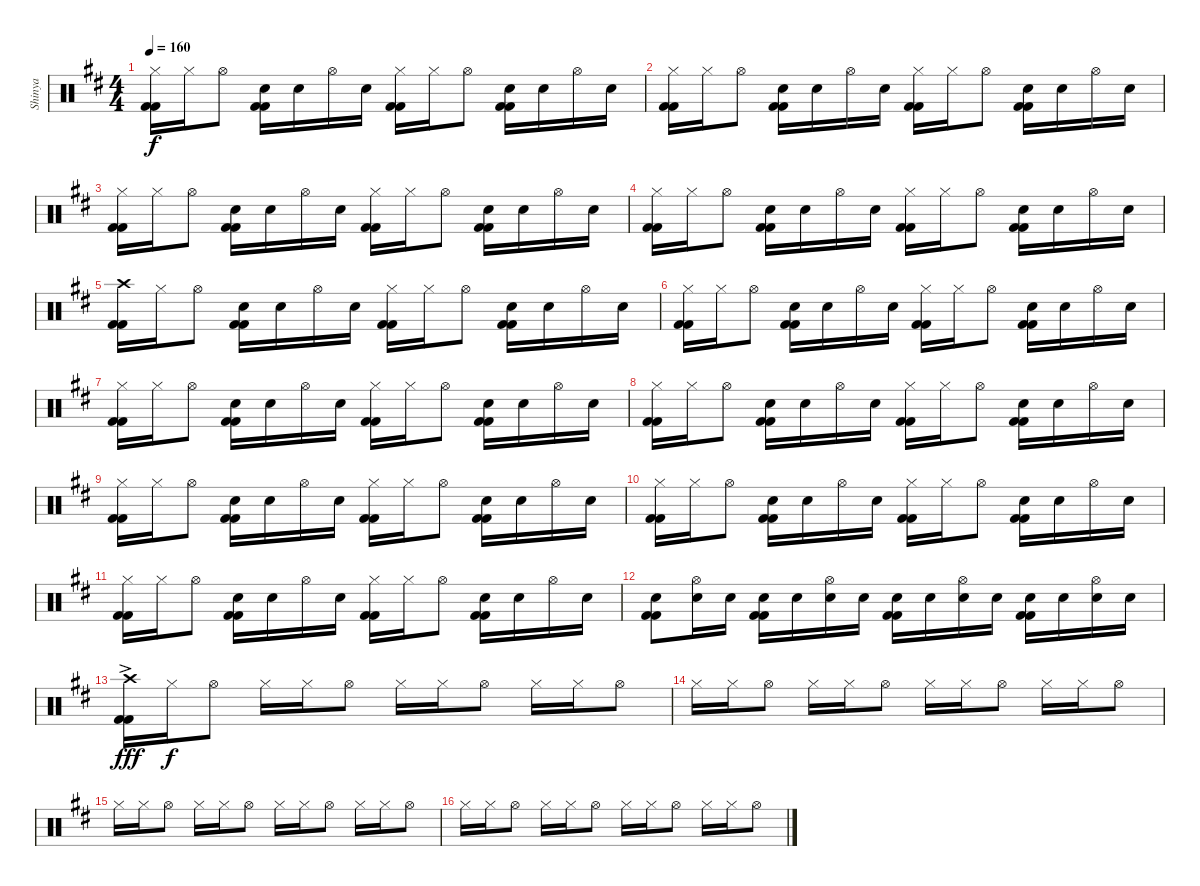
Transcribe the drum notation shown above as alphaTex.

\track ("Shinya " "Shinya ") {instrument percussion}
\staff {score}
\articulation defaults
\ts (4 4)
\tempo 160
\clef neutral
\ks d
("Hi-Hat (closed)" "Kick (hit) 2" "Kick (hit) 2").16{dy f} "Hi-Hat (closed)".16 "Hi-Hat (open)".8 ("Snare (hit) 2" "Kick (hit) 2" "Kick (hit) 2").16 "Snare (hit) 2".16 "Hi-Hat (open)".16 "Snare (hit) 2".16 ("Hi-Hat (closed)" "Kick (hit) 2" "Kick (hit) 2").16 "Hi-Hat (closed)".16 "Hi-Hat (open)".8 ("Snare (hit) 2" "Kick (hit) 2" "Kick (hit) 2").16 "Snare (hit) 2".16 "Hi-Hat (open)".16 "Snare (hit) 2".16 |
("Hi-Hat (closed)" "Kick (hit) 2" "Kick (hit) 2").16 "Hi-Hat (closed)".16 "Hi-Hat (open)".8 ("Snare (hit) 2" "Kick (hit) 2" "Kick (hit) 2").16 "Snare (hit) 2".16 "Hi-Hat (open)".16 "Snare (hit) 2".16 ("Hi-Hat (closed)" "Kick (hit) 2" "Kick (hit) 2").16 "Hi-Hat (closed)".16 "Hi-Hat (open)".8 ("Snare (hit) 2" "Kick (hit) 2" "Kick (hit) 2").16 "Snare (hit) 2".16 "Hi-Hat (open)".16 "Snare (hit) 2".16 |
("Hi-Hat (closed)" "Kick (hit) 2" "Kick (hit) 2").16 "Hi-Hat (closed)".16 "Hi-Hat (open)".8 ("Snare (hit) 2" "Kick (hit) 2" "Kick (hit) 2").16 "Snare (hit) 2".16 "Hi-Hat (open)".16 "Snare (hit) 2".16 ("Hi-Hat (closed)" "Kick (hit) 2" "Kick (hit) 2").16 "Hi-Hat (closed)".16 "Hi-Hat (open)".8 ("Snare (hit) 2" "Kick (hit) 2" "Kick (hit) 2").16 "Snare (hit) 2".16 "Hi-Hat (open)".16 "Snare (hit) 2".16 |
("Hi-Hat (closed)" "Kick (hit) 2" "Kick (hit) 2").16 "Hi-Hat (closed)".16 "Hi-Hat (open)".8 ("Snare (hit) 2" "Kick (hit) 2" "Kick (hit) 2").16 "Snare (hit) 2".16 "Hi-Hat (open)".16 "Snare (hit) 2".16 ("Hi-Hat (closed)" "Kick (hit) 2" "Kick (hit) 2").16 "Hi-Hat (closed)".16 "Hi-Hat (open)".8 ("Snare (hit) 2" "Kick (hit) 2" "Kick (hit) 2").16 "Snare (hit) 2".16 "Hi-Hat (open)".16 "Snare (hit) 2".16 |
("Crash high (hit)" "Kick (hit) 2" "Kick (hit) 2").16 "Hi-Hat (closed)".16 "Hi-Hat (open)".8 ("Snare (hit) 2" "Kick (hit) 2" "Kick (hit) 2").16 "Snare (hit) 2".16 "Hi-Hat (open)".16 "Snare (hit) 2".16 ("Hi-Hat (closed)" "Kick (hit) 2" "Kick (hit) 2").16 "Hi-Hat (closed)".16 "Hi-Hat (open)".8 ("Snare (hit) 2" "Kick (hit) 2" "Kick (hit) 2").16 "Snare (hit) 2".16 "Hi-Hat (open)".16 "Snare (hit) 2".16 |
("Hi-Hat (closed)" "Kick (hit) 2" "Kick (hit) 2").16 "Hi-Hat (closed)".16 "Hi-Hat (open)".8 ("Snare (hit) 2" "Kick (hit) 2" "Kick (hit) 2").16 "Snare (hit) 2".16 "Hi-Hat (open)".16 "Snare (hit) 2".16 ("Hi-Hat (closed)" "Kick (hit) 2" "Kick (hit) 2").16 "Hi-Hat (closed)".16 "Hi-Hat (open)".8 ("Snare (hit) 2" "Kick (hit) 2" "Kick (hit) 2").16 "Snare (hit) 2".16 "Hi-Hat (open)".16 "Snare (hit) 2".16 |
("Hi-Hat (closed)" "Kick (hit) 2" "Kick (hit) 2").16 "Hi-Hat (closed)".16 "Hi-Hat (open)".8 ("Snare (hit) 2" "Kick (hit) 2" "Kick (hit) 2").16 "Snare (hit) 2".16 "Hi-Hat (open)".16 "Snare (hit) 2".16 ("Hi-Hat (closed)" "Kick (hit) 2" "Kick (hit) 2").16 "Hi-Hat (closed)".16 "Hi-Hat (open)".8 ("Snare (hit) 2" "Kick (hit) 2" "Kick (hit) 2").16 "Snare (hit) 2".16 "Hi-Hat (open)".16 "Snare (hit) 2".16 |
("Hi-Hat (closed)" "Kick (hit) 2" "Kick (hit) 2").16 "Hi-Hat (closed)".16 "Hi-Hat (open)".8 ("Snare (hit) 2" "Kick (hit) 2" "Kick (hit) 2").16 "Snare (hit) 2".16 "Hi-Hat (open)".16 "Snare (hit) 2".16 ("Hi-Hat (closed)" "Kick (hit) 2" "Kick (hit) 2").16 "Hi-Hat (closed)".16 "Hi-Hat (open)".8 ("Snare (hit) 2" "Kick (hit) 2" "Kick (hit) 2").16 "Snare (hit) 2".16 "Hi-Hat (open)".16 "Snare (hit) 2".16 |
("Hi-Hat (closed)" "Kick (hit) 2" "Kick (hit) 2").16 "Hi-Hat (closed)".16 "Hi-Hat (open)".8 ("Snare (hit) 2" "Kick (hit) 2" "Kick (hit) 2").16 "Snare (hit) 2".16 "Hi-Hat (open)".16 "Snare (hit) 2".16 ("Hi-Hat (closed)" "Kick (hit) 2" "Kick (hit) 2").16 "Hi-Hat (closed)".16 "Hi-Hat (open)".8 ("Snare (hit) 2" "Kick (hit) 2" "Kick (hit) 2").16 "Snare (hit) 2".16 "Hi-Hat (open)".16 "Snare (hit) 2".16 |
("Hi-Hat (closed)" "Kick (hit) 2" "Kick (hit) 2").16 "Hi-Hat (closed)".16 "Hi-Hat (open)".8 ("Snare (hit) 2" "Kick (hit) 2" "Kick (hit) 2").16 "Snare (hit) 2".16 "Hi-Hat (open)".16 "Snare (hit) 2".16 ("Hi-Hat (closed)" "Kick (hit) 2" "Kick (hit) 2").16 "Hi-Hat (closed)".16 "Hi-Hat (open)".8 ("Snare (hit) 2" "Kick (hit) 2" "Kick (hit) 2").16 "Snare (hit) 2".16 "Hi-Hat (open)".16 "Snare (hit) 2".16 |
("Hi-Hat (closed)" "Kick (hit) 2" "Kick (hit) 2").16 "Hi-Hat (closed)".16 "Hi-Hat (open)".8 ("Snare (hit) 2" "Kick (hit) 2" "Kick (hit) 2").16 "Snare (hit) 2".16 "Hi-Hat (open)".16 "Snare (hit) 2".16 ("Hi-Hat (closed)" "Kick (hit) 2" "Kick (hit) 2").16 "Hi-Hat (closed)".16 "Hi-Hat (open)".8 ("Snare (hit) 2" "Kick (hit) 2" "Kick (hit) 2").16 "Snare (hit) 2".16 "Hi-Hat (open)".16 "Snare (hit) 2".16 |
("Snare (hit) 2" "Kick (hit) 2" "Kick (hit) 2").8 ("Hi-Hat (open)" "Snare (hit) 2").16 "Snare (hit) 2".16 ("Snare (hit) 2" "Kick (hit) 2" "Kick (hit) 2").16 "Snare (hit) 2".16 ("Hi-Hat (open)" "Snare (hit) 2").16 "Snare (hit) 2".16 ("Snare (hit) 2" "Kick (hit) 2" "Kick (hit) 2").16 "Snare (hit) 2".16 ("Hi-Hat (open)" "Snare (hit) 2").16 "Snare (hit) 2".16 ("Snare (hit) 2" "Kick (hit) 2" "Kick (hit) 2").16 "Snare (hit) 2".16 ("Hi-Hat (open)" "Snare (hit) 2").16 "Snare (hit) 2".16 |
("Crash high (hit)"{ac} "Kick (hit) 2" "Kick (hit) 2").16{dy fff} "Hi-Hat (closed)".16{dy f} "Hi-Hat (open)".8 "Hi-Hat (closed)".16 "Hi-Hat (closed)".16 "Hi-Hat (open)".8 "Hi-Hat (closed)".16 "Hi-Hat (closed)".16 "Hi-Hat (open)".8 "Hi-Hat (closed)".16 "Hi-Hat (closed)".16 "Hi-Hat (open)".8 |
"Hi-Hat (closed)".16 "Hi-Hat (closed)".16 "Hi-Hat (open)".8 "Hi-Hat (closed)".16 "Hi-Hat (closed)".16 "Hi-Hat (open)".8 "Hi-Hat (closed)".16 "Hi-Hat (closed)".16 "Hi-Hat (open)".8 "Hi-Hat (closed)".16 "Hi-Hat (closed)".16 "Hi-Hat (open)".8 |
"Hi-Hat (closed)".16 "Hi-Hat (closed)".16 "Hi-Hat (open)".8 "Hi-Hat (closed)".16 "Hi-Hat (closed)".16 "Hi-Hat (open)".8 "Hi-Hat (closed)".16 "Hi-Hat (closed)".16 "Hi-Hat (open)".8 "Hi-Hat (closed)".16 "Hi-Hat (closed)".16 "Hi-Hat (open)".8 |
"Hi-Hat (closed)".16 "Hi-Hat (closed)".16 "Hi-Hat (open)".8 "Hi-Hat (closed)".16 "Hi-Hat (closed)".16 "Hi-Hat (open)".8 "Hi-Hat (closed)".16 "Hi-Hat (closed)".16 "Hi-Hat (open)".8 "Hi-Hat (closed)".16 "Hi-Hat (closed)".16 "Hi-Hat (open)".8
